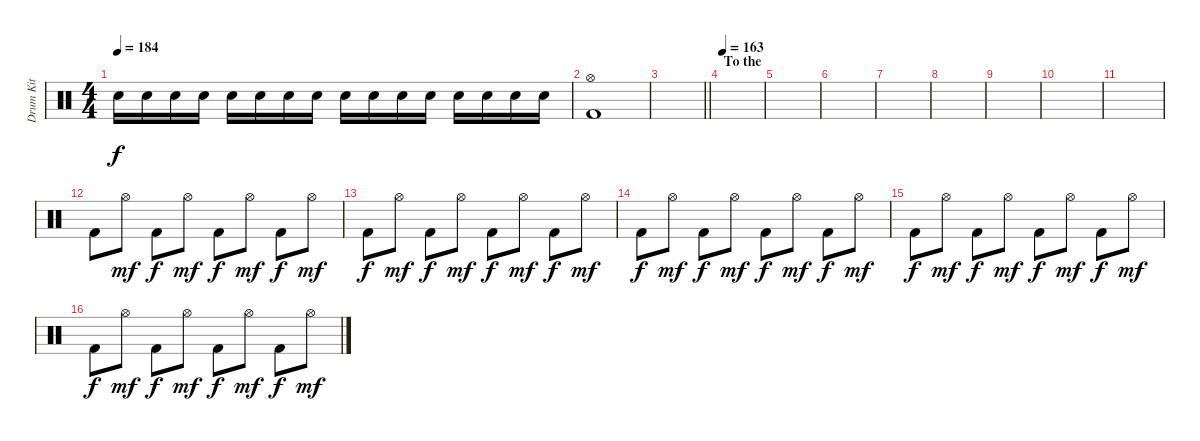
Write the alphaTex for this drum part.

\track ("Drum Kit" "Drum Kit") {instrument percussion}
\staff {score}
\articulation defaults
\ts (4 4)
\tempo 184
\clef neutral
\ks c "Snare (hit) 2".16{dy f} "Snare (hit) 2".16 "Snare (hit) 2".16 "Snare (hit) 2".16 "Snare (hit) 2".16 "Snare (hit) 2".16 "Snare (hit) 2".16 "Snare (hit) 2".16 "Snare (hit) 2".16 "Snare (hit) 2".16 "Snare (hit) 2".16 "Snare (hit) 2".16 "Snare (hit) 2".16 "Snare (hit) 2".16 "Snare (hit) 2".16 "Snare (hit) 2".16
|
("Hi-Hat (open)" "Kick (hit) 2").1 |
\barLineRight lightlight
|
\section ("" "To the")
\tempo 163
|
|
|
|
|
|
|
|
"Kick (hit) 2".8 "Hi-Hat (open)".8{dy mf} "Kick (hit) 2".8{dy f} "Hi-Hat (open)".8{dy mf} "Kick (hit) 2".8{dy f} "Hi-Hat (open)".8{dy mf} "Kick (hit) 2".8{dy f} "Hi-Hat (open)".8{dy mf} |
"Kick (hit) 2".8{dy f} "Hi-Hat (open)".8{dy mf} "Kick (hit) 2".8{dy f} "Hi-Hat (open)".8{dy mf} "Kick (hit) 2".8{dy f} "Hi-Hat (open)".8{dy mf} "Kick (hit) 2".8{dy f} "Hi-Hat (open)".8{dy mf} |
"Kick (hit) 2".8{dy f} "Hi-Hat (open)".8{dy mf} "Kick (hit) 2".8{dy f} "Hi-Hat (open)".8{dy mf} "Kick (hit) 2".8{dy f} "Hi-Hat (open)".8{dy mf} "Kick (hit) 2".8{dy f} "Hi-Hat (open)".8{dy mf} |
"Kick (hit) 2".8{dy f} "Hi-Hat (open)".8{dy mf} "Kick (hit) 2".8{dy f} "Hi-Hat (open)".8{dy mf} "Kick (hit) 2".8{dy f} "Hi-Hat (open)".8{dy mf} "Kick (hit) 2".8{dy f} "Hi-Hat (open)".8{dy mf} |
"Kick (hit) 2".8{dy f} "Hi-Hat (open)".8{dy mf} "Kick (hit) 2".8{dy f} "Hi-Hat (open)".8{dy mf} "Kick (hit) 2".8{dy f} "Hi-Hat (open)".8{dy mf} "Kick (hit) 2".8{dy f} "Hi-Hat (open)".8{dy mf}
